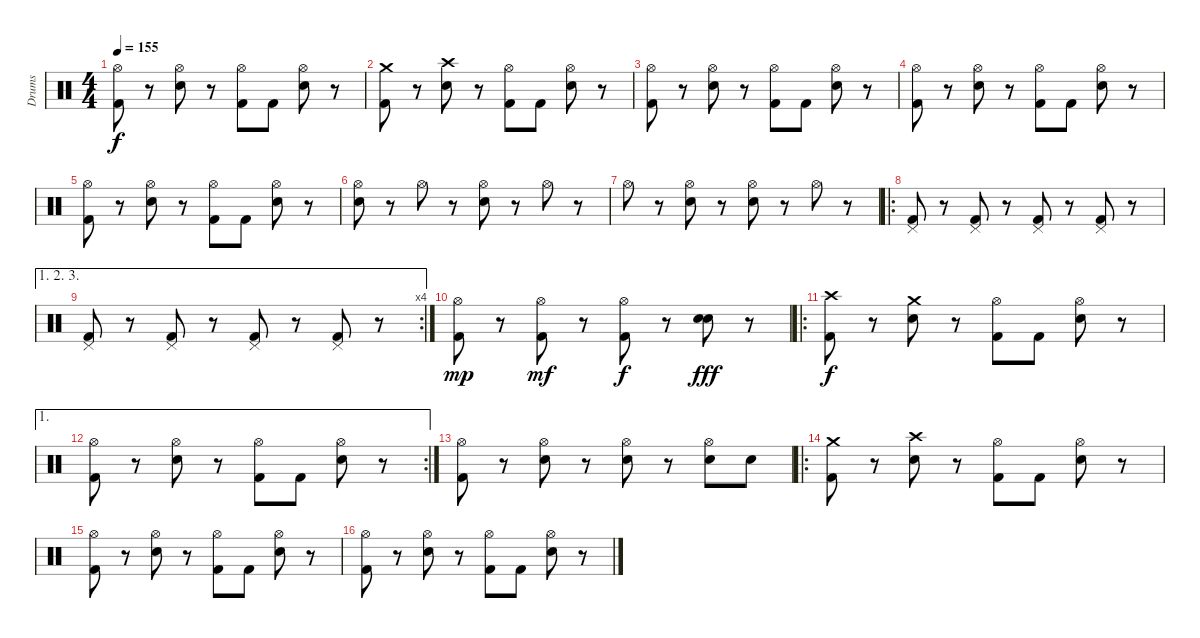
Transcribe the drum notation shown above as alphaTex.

\track ("Drums" "Drums") {instrument percussion}
\staff {score}
\articulation defaults
\ts (4 4)
\tempo 155
\clef neutral
\ks c
("Hi-Hat (open)" "Kick (hit) 2").8{dy f} r.8 ("Hi-Hat (open)" "Snare (hit) 2").8 r.8 ("Hi-Hat (open)" "Kick (hit) 2").8 "Kick (hit) 2".8 ("Hi-Hat (open)" "Snare (hit) 2").8 r.8 |
("Crash medium (hit)" "Kick (hit) 2").8 r.8 ("Crash high (hit)" "Snare (hit) 2").8 r.8 ("Hi-Hat (open)" "Kick (hit) 2").8 "Kick (hit) 2".8 ("Hi-Hat (open)" "Snare (hit) 2").8 r.8 |
("Hi-Hat (open)" "Kick (hit) 2").8 r.8 ("Hi-Hat (open)" "Snare (hit) 2").8 r.8 ("Hi-Hat (open)" "Kick (hit) 2").8 "Kick (hit) 2".8 ("Hi-Hat (open)" "Snare (hit) 2").8 r.8 |
("Hi-Hat (open)" "Kick (hit) 2").8 r.8 ("Hi-Hat (open)" "Snare (hit) 2").8 r.8 ("Hi-Hat (open)" "Kick (hit) 2").8 "Kick (hit) 2".8 ("Hi-Hat (open)" "Snare (hit) 2").8 r.8 |
("Hi-Hat (open)" "Kick (hit) 2").8 r.8 ("Hi-Hat (open)" "Snare (hit) 2").8 r.8 ("Hi-Hat (open)" "Kick (hit) 2").8 "Kick (hit) 2".8 ("Hi-Hat (open)" "Snare (hit) 2").8 r.8 |
("Hi-Hat (open)" "Snare (hit) 2").8 r.8 "Hi-Hat (open)".8 r.8 ("Hi-Hat (open)" "Snare (hit) 2").8 r.8 "Hi-Hat (open)".8 r.8 |
"Hi-Hat (open)".8 r.8 ("Hi-Hat (open)" "Snare (hit) 2").8 r.8 ("Hi-Hat (open)" "Snare (hit) 2").8 r.8 "Hi-Hat (open)".8 r.8 |
\ro
("Pedal Hi-Hat (hit)" "Kick (hit) 2").8 r.8 ("Pedal Hi-Hat (hit)" "Kick (hit) 2").8 r.8 ("Pedal Hi-Hat (hit)" "Kick (hit) 2").8 r.8 ("Pedal Hi-Hat (hit)" "Kick (hit) 2").8 r.8 |
\ae (1 2 3)
\rc 4
("Pedal Hi-Hat (hit)" "Kick (hit) 2").8 r.8 ("Pedal Hi-Hat (hit)" "Kick (hit) 2").8 r.8 ("Pedal Hi-Hat (hit)" "Kick (hit) 2").8 r.8 ("Pedal Hi-Hat (hit)" "Kick (hit) 2").8 r.8 |
("Hi-Hat (open)" "Kick (hit) 2").8{dy mp} r.8 ("Hi-Hat (open)" "Kick (hit) 2").8{dy mf} r.8 ("Hi-Hat (open)" "Kick (hit) 2").8{dy f} r.8 ("Snare (hit) 2" "Snare (hit) 2").8{dy fff} r.8 |
\ro
("Crash high (hit)" "Kick (hit) 2").8{dy f} r.8 ("Crash medium (hit)" "Snare (hit) 2").8 r.8 ("Hi-Hat (open)" "Kick (hit) 2").8 "Kick (hit) 2".8 ("Hi-Hat (open)" "Snare (hit) 2").8 r.8 |
\ae 1
\rc 2
("Hi-Hat (open)" "Kick (hit) 2").8 r.8 ("Hi-Hat (open)" "Snare (hit) 2").8 r.8 ("Hi-Hat (open)" "Kick (hit) 2").8 "Kick (hit) 2".8 ("Hi-Hat (open)" "Snare (hit) 2").8 r.8 |
("Hi-Hat (open)" "Kick (hit) 2").8 r.8 ("Hi-Hat (open)" "Snare (hit) 2").8 r.8 ("Hi-Hat (open)" "Snare (hit) 2").8 r.8 ("Hi-Hat (open)" "Snare (hit) 2").8 "Snare (hit) 2".8 |
\ro
("Crash medium (hit)" "Kick (hit) 2").8 r.8 ("Crash high (hit)" "Snare (hit) 2").8 r.8 ("Hi-Hat (open)" "Kick (hit) 2").8 "Kick (hit) 2".8 ("Hi-Hat (open)" "Snare (hit) 2").8 r.8 |
("Hi-Hat (open)" "Kick (hit) 2").8 r.8 ("Hi-Hat (open)" "Snare (hit) 2").8 r.8 ("Hi-Hat (open)" "Kick (hit) 2").8 "Kick (hit) 2".8 ("Hi-Hat (open)" "Snare (hit) 2").8 r.8 |
("Hi-Hat (open)" "Kick (hit) 2").8 r.8 ("Hi-Hat (open)" "Snare (hit) 2").8 r.8 ("Hi-Hat (open)" "Kick (hit) 2").8 "Kick (hit) 2".8 ("Hi-Hat (open)" "Snare (hit) 2").8 r.8
